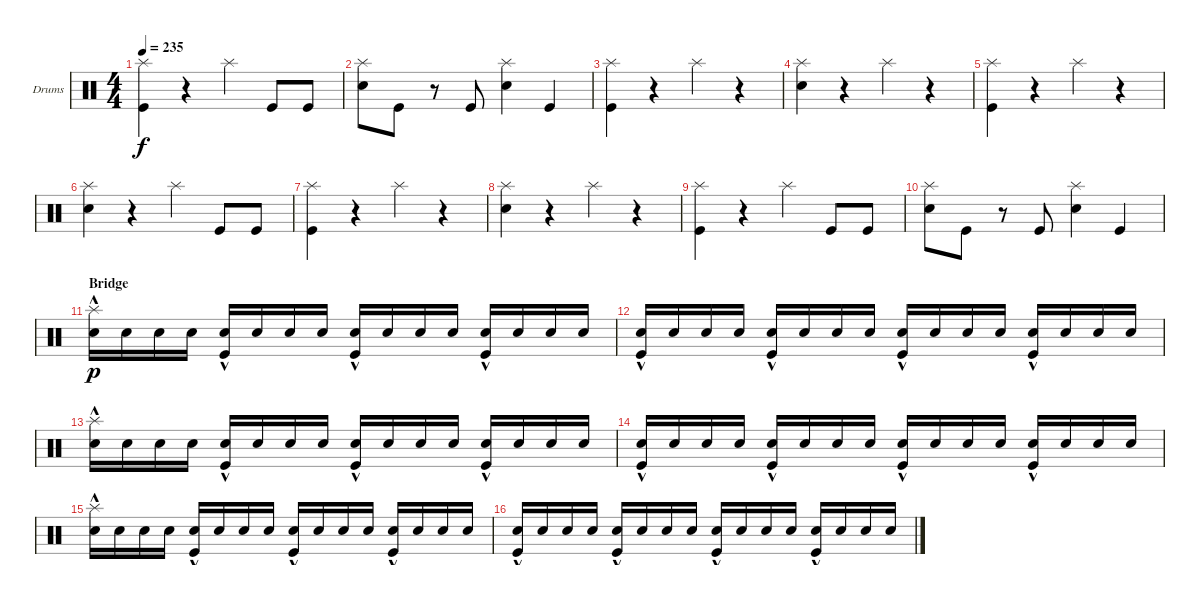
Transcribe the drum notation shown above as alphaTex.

\defaultSystemsLayout 4
\bracketExtendMode groupsimilarinstruments
\firstSystemTrackNameOrientation horizontal
\otherSystemsTrackNameOrientation horizontal
\track ("Drumkit" "Drums") {instrument percussion}
\staff {score}
\articulation defaults
\ts (4 4)
\tempo 235
\clef neutral
\ks c
("Kick (hit)" "Splash (hit)").4{dy f} r.4 "Splash (hit)".4 "Kick (hit)".8 "Kick (hit)".8 |
("Splash (hit)" "Snare (hit) 2").8 "Kick (hit)".8 r.8 "Kick (hit)".8 ("Splash (hit)" "Snare (hit) 2").4 "Kick (hit)".4 |
("Kick (hit)" "Splash (hit)").4 r.4 "Splash (hit)".4 r.4 |
("Splash (hit)" "Snare (hit) 2").4 r.4 "Splash (hit)".4 r.4 |
("Kick (hit)" "Splash (hit)").4 r.4 "Splash (hit)".4 r.4 |
("Splash (hit)" "Snare (hit) 2").4 r.4 "Splash (hit)".4 "Kick (hit)".8 "Kick (hit)".8 |
("Kick (hit)" "Splash (hit)").4 r.4 "Splash (hit)".4 r.4 |
("Splash (hit)" "Snare (hit) 2").4 r.4 "Splash (hit)".4 r.4 |
("Kick (hit)" "Splash (hit)").4 r.4 "Splash (hit)".4 "Kick (hit)".8 "Kick (hit)".8 |
("Splash (hit)" "Snare (hit) 2").8 "Kick (hit)".8 r.8 "Kick (hit)".8 ("Splash (hit)" "Snare (hit) 2").4 "Kick (hit)".4 |
\section ("" "Bridge")
("Splash (hit)" "Snare (hit) 2"{hac}).16{dy p} "Snare (hit) 2".16 "Snare (hit) 2".16 "Snare (hit) 2".16 ("Snare (hit) 2"{hac} "Kick (hit)").16 "Snare (hit) 2".16 "Snare (hit) 2".16 "Snare (hit) 2".16 ("Snare (hit) 2"{hac} "Kick (hit)").16 "Snare (hit) 2".16 "Snare (hit) 2".16 "Snare (hit) 2".16 ("Snare (hit) 2"{hac} "Kick (hit)").16 "Snare (hit) 2".16 "Snare (hit) 2".16 "Snare (hit) 2".16 |
("Snare (hit) 2"{hac} "Kick (hit)").16 "Snare (hit) 2".16 "Snare (hit) 2".16 "Snare (hit) 2".16 ("Snare (hit) 2"{hac} "Kick (hit)").16 "Snare (hit) 2".16 "Snare (hit) 2".16 "Snare (hit) 2".16 ("Snare (hit) 2"{hac} "Kick (hit)").16 "Snare (hit) 2".16 "Snare (hit) 2".16 "Snare (hit) 2".16 ("Snare (hit) 2"{hac} "Kick (hit)").16 "Snare (hit) 2".16 "Snare (hit) 2".16 "Snare (hit) 2".16 |
("Splash (hit)" "Snare (hit) 2"{hac}).16 "Snare (hit) 2".16 "Snare (hit) 2".16 "Snare (hit) 2".16 ("Snare (hit) 2"{hac} "Kick (hit)").16 "Snare (hit) 2".16 "Snare (hit) 2".16 "Snare (hit) 2".16 ("Snare (hit) 2"{hac} "Kick (hit)").16 "Snare (hit) 2".16 "Snare (hit) 2".16 "Snare (hit) 2".16 ("Snare (hit) 2"{hac} "Kick (hit)").16 "Snare (hit) 2".16 "Snare (hit) 2".16 "Snare (hit) 2".16 |
("Snare (hit) 2"{hac} "Kick (hit)").16 "Snare (hit) 2".16 "Snare (hit) 2".16 "Snare (hit) 2".16 ("Snare (hit) 2"{hac} "Kick (hit)").16 "Snare (hit) 2".16 "Snare (hit) 2".16 "Snare (hit) 2".16 ("Snare (hit) 2"{hac} "Kick (hit)").16 "Snare (hit) 2".16 "Snare (hit) 2".16 "Snare (hit) 2".16 ("Snare (hit) 2"{hac} "Kick (hit)").16 "Snare (hit) 2".16 "Snare (hit) 2".16 "Snare (hit) 2".16 |
("Splash (hit)" "Snare (hit) 2"{hac}).16 "Snare (hit) 2".16 "Snare (hit) 2".16 "Snare (hit) 2".16 ("Snare (hit) 2"{hac} "Kick (hit)").16 "Snare (hit) 2".16 "Snare (hit) 2".16 "Snare (hit) 2".16 ("Snare (hit) 2"{hac} "Kick (hit)").16 "Snare (hit) 2".16 "Snare (hit) 2".16 "Snare (hit) 2".16 ("Snare (hit) 2"{hac} "Kick (hit)").16 "Snare (hit) 2".16 "Snare (hit) 2".16 "Snare (hit) 2".16 |
("Snare (hit) 2"{hac} "Kick (hit)").16 "Snare (hit) 2".16 "Snare (hit) 2".16 "Snare (hit) 2".16 ("Snare (hit) 2"{hac} "Kick (hit)").16 "Snare (hit) 2".16 "Snare (hit) 2".16 "Snare (hit) 2".16 ("Snare (hit) 2"{hac} "Kick (hit)").16 "Snare (hit) 2".16 "Snare (hit) 2".16 "Snare (hit) 2".16 ("Snare (hit) 2"{hac} "Kick (hit)").16 "Snare (hit) 2".16 "Snare (hit) 2".16 "Snare (hit) 2".16
